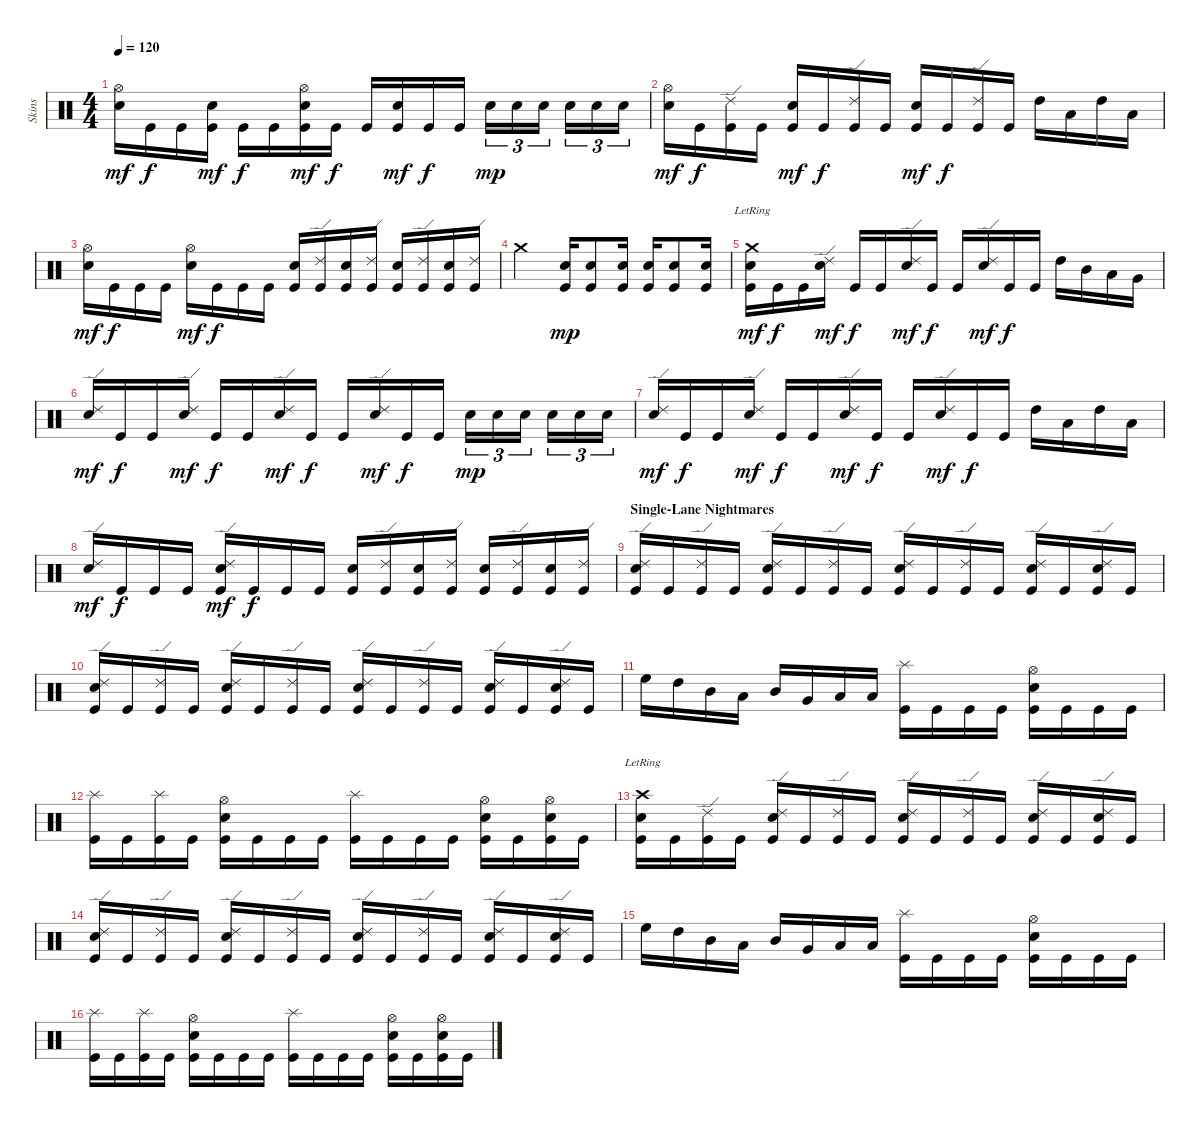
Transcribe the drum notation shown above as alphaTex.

\track ("Skins" "Skins") {instrument percussion}
\staff {score}
\articulation defaults
\ts (4 4)
\tempo 120
\clef neutral
\ks c
("Hi-Hat (open)" "Electric Snare (hit)").16{dy mf} "Kick (hit)".16{dy f} "Kick (hit)".16 ("Electric Snare (hit)" "Kick (hit)").16{dy mf} "Kick (hit)".16{dy f} "Kick (hit)".16 ("Hi-Hat (open)" "Electric Snare (hit)" "Kick (hit)").16{dy mf} "Kick (hit)".16{dy f} "Kick (hit)".16 ("Electric Snare (hit)" "Kick (hit)").16{dy mf} "Kick (hit)".16{dy f} "Kick (hit)".16 "Snare (hit) 2".16{tu (3 2) dy mp} "Snare (hit) 2".16{tu (3 2)} "Snare (hit) 2".16{tu (3 2)} "Snare (hit) 2".16{tu (3 2)} "Snare (hit) 2".16{tu (3 2)} "Snare (hit) 2".16{tu (3 2)} |
("Hi-Hat (open)" "Electric Snare (hit)").16{dy mf} "Kick (hit)".16{dy f} ("Ride (edge) 2" "Kick (hit)").16 "Kick (hit)".16 ("Snare (hit) 2" "Kick (hit)").16{dy mf} "Kick (hit)".16{dy f} ("Ride (edge) 2" "Kick (hit)").16 "Kick (hit)".16 ("Snare (hit) 2" "Kick (hit)").16{dy mf} "Kick (hit)".16{dy f} ("Ride (edge) 2" "Kick (hit)").16 "Kick (hit)".16 "High Tom (hit)".16 "Low Tom (hit)".16 "High Tom (hit)".16 "Low Tom (hit)".16 |
("Hi-Hat (open)" "Electric Snare (hit)").16{dy mf} "Kick (hit)".16{dy f} "Kick (hit)".16 "Kick (hit)".16 ("Hi-Hat (open)" "Electric Snare (hit)").16{dy mf} "Kick (hit)".16{dy f} "Kick (hit)".16 "Kick (hit)".16 ("Snare (hit) 2" "Kick (hit)").16 ("Ride (edge) 2" "Kick (hit)").16 ("Snare (hit) 2" "Kick (hit)").16 ("Ride (edge) 2" "Kick (hit)").16 ("Snare (hit) 2" "Kick (hit)").16 ("Ride (edge) 2" "Kick (hit)").16 ("Snare (hit) 2" "Kick (hit)").16 ("Ride (edge) 2" "Kick (hit)").16 |
"Crash medium (hit)".2 ("Snare (hit) 2" "Kick (hit)").16{dy mp} ("Snare (hit) 2" "Kick (hit)").8 ("Snare (hit) 2" "Kick (hit)").16 ("Snare (hit) 2" "Kick (hit)").16 ("Snare (hit) 2" "Kick (hit)").8 ("Snare (hit) 2" "Kick (hit)").16 |
("Crash medium (hit)"{lr} "Snare (hit) 2" "Kick (hit)").16{dy mf} "Kick (hit)".16{dy f} "Kick (hit)".16 ("Ride (edge) 2" "Snare (hit) 2").16{dy mf} "Kick (hit)".16{dy f} "Kick (hit)".16 ("Ride (edge) 2" "Snare (hit) 2").16{dy mf} "Kick (hit)".16{dy f} "Kick (hit)".16 ("Ride (edge) 2" "Snare (hit) 2").16{dy mf} "Kick (hit)".16{dy f} "Kick (hit)".16 "High Tom (hit)".16 "Mid Tom (hit)".16 "Low Tom (hit)".16 "Very Low Tom (hit)".16 |
("Ride (edge) 2" "Snare (hit) 2").16{dy mf} "Kick (hit)".16{dy f} "Kick (hit)".16 ("Ride (edge) 2" "Snare (hit) 2").16{dy mf} "Kick (hit)".16{dy f} "Kick (hit)".16 ("Ride (edge) 2" "Snare (hit) 2").16{dy mf} "Kick (hit)".16{dy f} "Kick (hit)".16 ("Ride (edge) 2" "Snare (hit) 2").16{dy mf} "Kick (hit)".16{dy f} "Kick (hit)".16 "Snare (hit) 2".16{tu (3 2) dy mp} "Snare (hit) 2".16{tu (3 2)} "Snare (hit) 2".16{tu (3 2)} "Snare (hit) 2".16{tu (3 2)} "Snare (hit) 2".16{tu (3 2)} "Snare (hit) 2".16{tu (3 2)} |
("Ride (edge) 2" "Snare (hit) 2").16{dy mf} "Kick (hit)".16{dy f} "Kick (hit)".16 ("Ride (edge) 2" "Snare (hit) 2").16{dy mf} "Kick (hit)".16{dy f} "Kick (hit)".16 ("Ride (edge) 2" "Snare (hit) 2").16{dy mf} "Kick (hit)".16{dy f} "Kick (hit)".16 ("Ride (edge) 2" "Snare (hit) 2").16{dy mf} "Kick (hit)".16{dy f} "Kick (hit)".16 "High Tom (hit)".16 "Low Tom (hit)".16 "High Tom (hit)".16 "Low Tom (hit)".16 |
("Ride (edge) 2" "Snare (hit) 2").16{dy mf} "Kick (hit)".16{dy f} "Kick (hit)".16 "Kick (hit)".16 ("Ride (edge) 2" "Snare (hit) 2" "Kick (hit)").16{dy mf} "Kick (hit)".16{dy f} "Kick (hit)".16 "Kick (hit)".16 ("Snare (hit) 2" "Kick (hit)").16 ("Ride (edge) 2" "Kick (hit)").16 ("Snare (hit) 2" "Kick (hit)").16 ("Ride (edge) 2" "Kick (hit)").16 ("Snare (hit) 2" "Kick (hit)").16 ("Ride (edge) 2" "Kick (hit)").16 ("Snare (hit) 2" "Kick (hit)").16 ("Ride (edge) 2" "Kick (hit)").16 |
\section ("" "Single-Lane Nightmares")
("Ride (edge) 2" "Electric Snare (hit)" "Kick (hit)").16 "Kick (hit)".16 ("Ride (edge) 2" "Kick (hit)").16 "Kick (hit)".16 ("Ride (edge) 2" "Snare (hit) 2" "Kick (hit)").16 "Kick (hit)".16 ("Ride (edge) 2" "Kick (hit)").16 "Kick (hit)".16 ("Ride (edge) 2" "Electric Snare (hit)" "Kick (hit)").16 "Kick (hit)".16 ("Ride (edge) 2" "Kick (hit)").16 "Kick (hit)".16 ("Ride (edge) 2" "Snare (hit) 2" "Kick (hit)").16 "Kick (hit)".16 ("Ride (edge) 2" "Snare (hit) 2" "Kick (hit)").16 "Kick (hit)".16 |
("Ride (edge) 2" "Electric Snare (hit)" "Kick (hit)").16 "Kick (hit)".16 ("Ride (edge) 2" "Kick (hit)").16 "Kick (hit)".16 ("Ride (edge) 2" "Snare (hit) 2" "Kick (hit)").16 "Kick (hit)".16 ("Ride (edge) 2" "Kick (hit)").16 "Kick (hit)".16 ("Ride (edge) 2" "Electric Snare (hit)" "Kick (hit)").16 "Kick (hit)".16 ("Ride (edge) 2" "Kick (hit)").16 "Kick (hit)".16 ("Ride (edge) 2" "Snare (hit) 2" "Kick (hit)").16 "Kick (hit)".16 ("Ride (edge) 2" "Snare (hit) 2" "Kick (hit)").16 "Kick (hit)".16 |
"High Floor Tom (hit)".16 "High Tom (hit)".16 "Mid Tom (hit)".16 "Low Tom (hit)".16 "Mid Tom (hit)".16 "Very Low Tom (hit)".16 "Low Floor Tom (hit)".16 "Low Floor Tom (hit)".16 ("Splash (hit)" "Kick (hit)").16 "Kick (hit)".16 "Kick (hit)".16 "Kick (hit)".16 ("Hi-Hat (open)" "Electric Snare (hit)" "Kick (hit)").16 "Kick (hit)".16 "Kick (hit)".16 "Kick (hit)".16 |
("Splash (hit)" "Kick (hit)").16 "Kick (hit)".16 ("Splash (hit)" "Kick (hit)").16 "Kick (hit)".16 ("Hi-Hat (open)" "Electric Snare (hit)" "Kick (hit)").16 "Kick (hit)".16 "Kick (hit)".16 "Kick (hit)".16 ("Splash (hit)" "Kick (hit)").16 "Kick (hit)".16 "Kick (hit)".16 "Kick (hit)".16 ("Hi-Hat (open)" "Electric Snare (hit)" "Kick (hit)").16 "Kick (hit)".16 ("Hi-Hat (open)" "Electric Snare (hit)" "Kick (hit)").16 "Kick (hit)".16 |
("Crash high (hit)"{lr} "Electric Snare (hit)" "Kick (hit)").16 "Kick (hit)".16 ("Ride (edge) 2" "Kick (hit)").16 "Kick (hit)".16 ("Ride (edge) 2" "Snare (hit) 2" "Kick (hit)").16 "Kick (hit)".16 ("Ride (edge) 2" "Kick (hit)").16 "Kick (hit)".16 ("Ride (edge) 2" "Electric Snare (hit)" "Kick (hit)").16 "Kick (hit)".16 ("Ride (edge) 2" "Kick (hit)").16 "Kick (hit)".16 ("Ride (edge) 2" "Snare (hit) 2" "Kick (hit)").16 "Kick (hit)".16 ("Ride (edge) 2" "Snare (hit) 2" "Kick (hit)").16 "Kick (hit)".16 |
("Ride (edge) 2" "Electric Snare (hit)" "Kick (hit)").16 "Kick (hit)".16 ("Ride (edge) 2" "Kick (hit)").16 "Kick (hit)".16 ("Ride (edge) 2" "Snare (hit) 2" "Kick (hit)").16 "Kick (hit)".16 ("Ride (edge) 2" "Kick (hit)").16 "Kick (hit)".16 ("Ride (edge) 2" "Electric Snare (hit)" "Kick (hit)").16 "Kick (hit)".16 ("Ride (edge) 2" "Kick (hit)").16 "Kick (hit)".16 ("Ride (edge) 2" "Snare (hit) 2" "Kick (hit)").16 "Kick (hit)".16 ("Ride (edge) 2" "Snare (hit) 2" "Kick (hit)").16 "Kick (hit)".16 |
"High Floor Tom (hit)".16 "High Tom (hit)".16 "Mid Tom (hit)".16 "Low Tom (hit)".16 "Mid Tom (hit)".16 "Very Low Tom (hit)".16 "Low Floor Tom (hit)".16 "Low Floor Tom (hit)".16 ("Splash (hit)" "Kick (hit)").16 "Kick (hit)".16 "Kick (hit)".16 "Kick (hit)".16 ("Hi-Hat (open)" "Electric Snare (hit)" "Kick (hit)").16 "Kick (hit)".16 "Kick (hit)".16 "Kick (hit)".16 |
("Splash (hit)" "Kick (hit)").16 "Kick (hit)".16 ("Splash (hit)" "Kick (hit)").16 "Kick (hit)".16 ("Hi-Hat (open)" "Electric Snare (hit)" "Kick (hit)").16 "Kick (hit)".16 "Kick (hit)".16 "Kick (hit)".16 ("Splash (hit)" "Kick (hit)").16 "Kick (hit)".16 "Kick (hit)".16 "Kick (hit)".16 ("Hi-Hat (open)" "Electric Snare (hit)" "Kick (hit)").16 "Kick (hit)".16 ("Hi-Hat (open)" "Electric Snare (hit)" "Kick (hit)").16 "Kick (hit)".16
